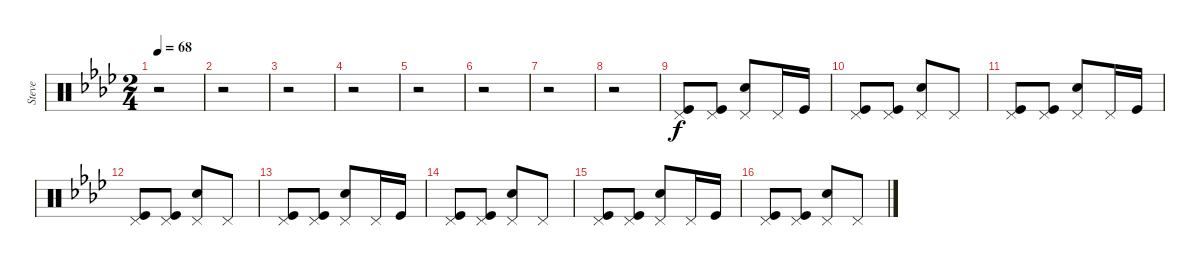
\track ("Steve" "Steve") {instrument percussion}
\staff {score}
\articulation defaults
\ts (2 4)
\tempo 68
\clef neutral
\ks fminor
r.2{dy f} |
r.2 |
r.2 |
r.2 |
r.2 |
r.2 |
r.2 |
r.2 |
("Kick (hit)" "Pedal Hi-Hat (hit)").8 ("Kick (hit)" "Pedal Hi-Hat (hit)").8 ("Electric Snare (hit)" "Pedal Hi-Hat (hit)").8 "Pedal Hi-Hat (hit)".16 "Kick (hit)".16 |
("Kick (hit)" "Pedal Hi-Hat (hit)").8 ("Kick (hit)" "Pedal Hi-Hat (hit)").8 ("Electric Snare (hit)" "Pedal Hi-Hat (hit)").8 "Pedal Hi-Hat (hit)".8 |
("Kick (hit)" "Pedal Hi-Hat (hit)").8 ("Kick (hit)" "Pedal Hi-Hat (hit)").8 ("Electric Snare (hit)" "Pedal Hi-Hat (hit)").8 "Pedal Hi-Hat (hit)".16 "Kick (hit)".16 |
("Kick (hit)" "Pedal Hi-Hat (hit)").8 ("Kick (hit)" "Pedal Hi-Hat (hit)").8 ("Electric Snare (hit)" "Pedal Hi-Hat (hit)").8 "Pedal Hi-Hat (hit)".8 |
("Kick (hit)" "Pedal Hi-Hat (hit)").8 ("Kick (hit)" "Pedal Hi-Hat (hit)").8 ("Electric Snare (hit)" "Pedal Hi-Hat (hit)").8 "Pedal Hi-Hat (hit)".16 "Kick (hit)".16 |
("Kick (hit)" "Pedal Hi-Hat (hit)").8 ("Kick (hit)" "Pedal Hi-Hat (hit)").8 ("Electric Snare (hit)" "Pedal Hi-Hat (hit)").8 "Pedal Hi-Hat (hit)".8 |
("Kick (hit)" "Pedal Hi-Hat (hit)").8 ("Kick (hit)" "Pedal Hi-Hat (hit)").8 ("Electric Snare (hit)" "Pedal Hi-Hat (hit)").8 "Pedal Hi-Hat (hit)".16 "Kick (hit)".16 |
("Kick (hit)" "Pedal Hi-Hat (hit)").8 ("Kick (hit)" "Pedal Hi-Hat (hit)").8 ("Electric Snare (hit)" "Pedal Hi-Hat (hit)").8 "Pedal Hi-Hat (hit)".8
